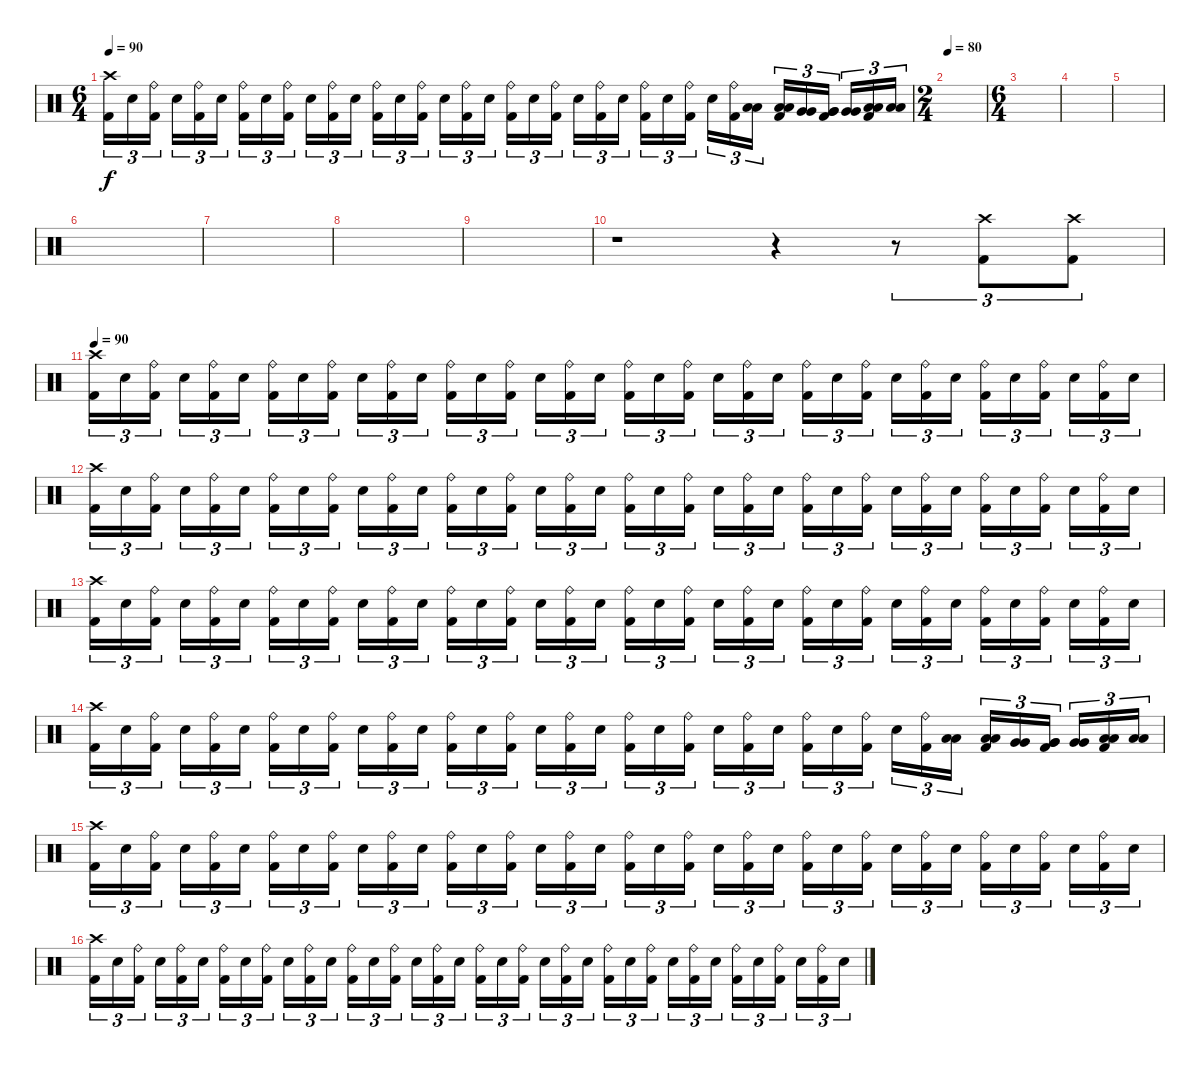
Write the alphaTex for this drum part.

\track "" {instrument percussion}
\staff {score}
\articulation defaults
\ts (6 4)
\tempo 90
\clef neutral
\ks c
("Crash high (hit)" "Kick (hit) 2").16{tu (3 2) dy f} "Electric Snare (hit)".16{tu (3 2)} ("Ride (bell)" "Kick (hit) 2").16{tu (3 2)} "Electric Snare (hit)".16{tu (3 2)} ("Ride (bell)" "Kick (hit) 2").16{tu (3 2)} "Electric Snare (hit)".16{tu (3 2)} ("Ride (bell)" "Kick (hit) 2").16{tu (3 2)} "Electric Snare (hit)".16{tu (3 2)} ("Ride (bell)" "Kick (hit) 2").16{tu (3 2)} "Electric Snare (hit)".16{tu (3 2)} ("Ride (bell)" "Kick (hit) 2").16{tu (3 2)} "Electric Snare (hit)".16{tu (3 2)} ("Ride (bell)" "Kick (hit) 2").16{tu (3 2)} "Electric Snare (hit)".16{tu (3 2)} ("Ride (bell)" "Kick (hit) 2").16{tu (3 2)} "Electric Snare (hit)".16{tu (3 2)} ("Ride (bell)" "Kick (hit) 2").16{tu (3 2)} "Electric Snare (hit)".16{tu (3 2)} ("Ride (bell)" "Kick (hit) 2").16{tu (3 2)} "Electric Snare (hit)".16{tu (3 2)} ("Ride (bell)" "Kick (hit) 2").16{tu (3 2)} "Electric Snare (hit)".16{tu (3 2)} ("Ride (bell)" "Kick (hit) 2").16{tu (3 2)} "Electric Snare (hit)".16{tu (3 2)} ("Ride (bell)" "Kick (hit) 2").16{tu (3 2)} "Electric Snare (hit)".16{tu (3 2)} ("Ride (bell)" "Kick (hit) 2").16{tu (3 2)} "Electric Snare (hit)".16{tu (3 2)} ("Ride (bell)" "Kick (hit) 2").16{tu (3 2)} ("Low Tom (hit)" "Low Tom (hit)").16{tu (3 2)} ("Low Tom (hit)" "Low Tom (hit)" "Kick (hit) 2").16{tu (3 2)} ("Very Low Tom (hit)" "Very Low Tom (hit)").16{tu (3 2)} ("Very Low Tom (hit)" "Very Low Tom (hit)" "Kick (hit) 2").16{tu (3 2)} ("Very Low Tom (hit)" "Very Low Tom (hit)").16{tu (3 2)} ("Low Floor Tom (hit)" "Low Floor Tom (hit)" "Kick (hit) 2").16{tu (3 2)} ("Low Floor Tom (hit)" "Low Floor Tom (hit)").16{tu (3 2)} |
\ts (2 4)
\tempo 80
|
\ts (6 4)
|
|
|
|
|
|
|
r.1 r.4 r.8{tu (3 2)} ("Crash high (hit)" "Kick (hit) 2").8{tu (3 2)} ("Crash high (hit)" "Kick (hit) 2").8{tu (3 2)} |
\tempo 90
("Crash high (hit)" "Kick (hit) 2").16{tu (3 2)} "Electric Snare (hit)".16{tu (3 2)} ("Ride (bell)" "Kick (hit) 2").16{tu (3 2)} "Electric Snare (hit)".16{tu (3 2)} ("Ride (bell)" "Kick (hit) 2").16{tu (3 2)} "Electric Snare (hit)".16{tu (3 2)} ("Ride (bell)" "Kick (hit) 2").16{tu (3 2)} "Electric Snare (hit)".16{tu (3 2)} ("Ride (bell)" "Kick (hit) 2").16{tu (3 2)} "Electric Snare (hit)".16{tu (3 2)} ("Ride (bell)" "Kick (hit) 2").16{tu (3 2)} "Electric Snare (hit)".16{tu (3 2)} ("Ride (bell)" "Kick (hit) 2").16{tu (3 2)} "Electric Snare (hit)".16{tu (3 2)} ("Ride (bell)" "Kick (hit) 2").16{tu (3 2)} "Electric Snare (hit)".16{tu (3 2)} ("Ride (bell)" "Kick (hit) 2").16{tu (3 2)} "Electric Snare (hit)".16{tu (3 2)} ("Ride (bell)" "Kick (hit) 2").16{tu (3 2)} "Electric Snare (hit)".16{tu (3 2)} ("Ride (bell)" "Kick (hit) 2").16{tu (3 2)} "Electric Snare (hit)".16{tu (3 2)} ("Ride (bell)" "Kick (hit) 2").16{tu (3 2)} "Electric Snare (hit)".16{tu (3 2)} ("Ride (bell)" "Kick (hit) 2").16{tu (3 2)} "Electric Snare (hit)".16{tu (3 2)} ("Ride (bell)" "Kick (hit) 2").16{tu (3 2)} "Electric Snare (hit)".16{tu (3 2)} ("Ride (bell)" "Kick (hit) 2").16{tu (3 2)} "Electric Snare (hit)".16{tu (3 2)} ("Ride (bell)" "Kick (hit) 2").16{tu (3 2)} "Electric Snare (hit)".16{tu (3 2)} ("Ride (bell)" "Kick (hit) 2").16{tu (3 2)} "Electric Snare (hit)".16{tu (3 2)} ("Ride (bell)" "Kick (hit) 2").16{tu (3 2)} "Electric Snare (hit)".16{tu (3 2)} |
("Crash high (hit)" "Kick (hit) 2").16{tu (3 2)} "Electric Snare (hit)".16{tu (3 2)} ("Ride (bell)" "Kick (hit) 2").16{tu (3 2)} "Electric Snare (hit)".16{tu (3 2)} ("Ride (bell)" "Kick (hit) 2").16{tu (3 2)} "Electric Snare (hit)".16{tu (3 2)} ("Ride (bell)" "Kick (hit) 2").16{tu (3 2)} "Electric Snare (hit)".16{tu (3 2)} ("Ride (bell)" "Kick (hit) 2").16{tu (3 2)} "Electric Snare (hit)".16{tu (3 2)} ("Ride (bell)" "Kick (hit) 2").16{tu (3 2)} "Electric Snare (hit)".16{tu (3 2)} ("Ride (bell)" "Kick (hit) 2").16{tu (3 2)} "Electric Snare (hit)".16{tu (3 2)} ("Ride (bell)" "Kick (hit) 2").16{tu (3 2)} "Electric Snare (hit)".16{tu (3 2)} ("Ride (bell)" "Kick (hit) 2").16{tu (3 2)} "Electric Snare (hit)".16{tu (3 2)} ("Ride (bell)" "Kick (hit) 2").16{tu (3 2)} "Electric Snare (hit)".16{tu (3 2)} ("Ride (bell)" "Kick (hit) 2").16{tu (3 2)} "Electric Snare (hit)".16{tu (3 2)} ("Ride (bell)" "Kick (hit) 2").16{tu (3 2)} "Electric Snare (hit)".16{tu (3 2)} ("Ride (bell)" "Kick (hit) 2").16{tu (3 2)} "Electric Snare (hit)".16{tu (3 2)} ("Ride (bell)" "Kick (hit) 2").16{tu (3 2)} "Electric Snare (hit)".16{tu (3 2)} ("Ride (bell)" "Kick (hit) 2").16{tu (3 2)} "Electric Snare (hit)".16{tu (3 2)} ("Ride (bell)" "Kick (hit) 2").16{tu (3 2)} "Electric Snare (hit)".16{tu (3 2)} ("Ride (bell)" "Kick (hit) 2").16{tu (3 2)} "Electric Snare (hit)".16{tu (3 2)} ("Ride (bell)" "Kick (hit) 2").16{tu (3 2)} "Electric Snare (hit)".16{tu (3 2)} |
("Crash high (hit)" "Kick (hit) 2").16{tu (3 2)} "Electric Snare (hit)".16{tu (3 2)} ("Ride (bell)" "Kick (hit) 2").16{tu (3 2)} "Electric Snare (hit)".16{tu (3 2)} ("Ride (bell)" "Kick (hit) 2").16{tu (3 2)} "Electric Snare (hit)".16{tu (3 2)} ("Ride (bell)" "Kick (hit) 2").16{tu (3 2)} "Electric Snare (hit)".16{tu (3 2)} ("Ride (bell)" "Kick (hit) 2").16{tu (3 2)} "Electric Snare (hit)".16{tu (3 2)} ("Ride (bell)" "Kick (hit) 2").16{tu (3 2)} "Electric Snare (hit)".16{tu (3 2)} ("Ride (bell)" "Kick (hit) 2").16{tu (3 2)} "Electric Snare (hit)".16{tu (3 2)} ("Ride (bell)" "Kick (hit) 2").16{tu (3 2)} "Electric Snare (hit)".16{tu (3 2)} ("Ride (bell)" "Kick (hit) 2").16{tu (3 2)} "Electric Snare (hit)".16{tu (3 2)} ("Ride (bell)" "Kick (hit) 2").16{tu (3 2)} "Electric Snare (hit)".16{tu (3 2)} ("Ride (bell)" "Kick (hit) 2").16{tu (3 2)} "Electric Snare (hit)".16{tu (3 2)} ("Ride (bell)" "Kick (hit) 2").16{tu (3 2)} "Electric Snare (hit)".16{tu (3 2)} ("Ride (bell)" "Kick (hit) 2").16{tu (3 2)} "Electric Snare (hit)".16{tu (3 2)} ("Ride (bell)" "Kick (hit) 2").16{tu (3 2)} "Electric Snare (hit)".16{tu (3 2)} ("Ride (bell)" "Kick (hit) 2").16{tu (3 2)} "Electric Snare (hit)".16{tu (3 2)} ("Ride (bell)" "Kick (hit) 2").16{tu (3 2)} "Electric Snare (hit)".16{tu (3 2)} ("Ride (bell)" "Kick (hit) 2").16{tu (3 2)} "Electric Snare (hit)".16{tu (3 2)} ("Ride (bell)" "Kick (hit) 2").16{tu (3 2)} "Electric Snare (hit)".16{tu (3 2)} |
("Crash high (hit)" "Kick (hit) 2").16{tu (3 2)} "Electric Snare (hit)".16{tu (3 2)} ("Ride (bell)" "Kick (hit) 2").16{tu (3 2)} "Electric Snare (hit)".16{tu (3 2)} ("Ride (bell)" "Kick (hit) 2").16{tu (3 2)} "Electric Snare (hit)".16{tu (3 2)} ("Ride (bell)" "Kick (hit) 2").16{tu (3 2)} "Electric Snare (hit)".16{tu (3 2)} ("Ride (bell)" "Kick (hit) 2").16{tu (3 2)} "Electric Snare (hit)".16{tu (3 2)} ("Ride (bell)" "Kick (hit) 2").16{tu (3 2)} "Electric Snare (hit)".16{tu (3 2)} ("Ride (bell)" "Kick (hit) 2").16{tu (3 2)} "Electric Snare (hit)".16{tu (3 2)} ("Ride (bell)" "Kick (hit) 2").16{tu (3 2)} "Electric Snare (hit)".16{tu (3 2)} ("Ride (bell)" "Kick (hit) 2").16{tu (3 2)} "Electric Snare (hit)".16{tu (3 2)} ("Ride (bell)" "Kick (hit) 2").16{tu (3 2)} "Electric Snare (hit)".16{tu (3 2)} ("Ride (bell)" "Kick (hit) 2").16{tu (3 2)} "Electric Snare (hit)".16{tu (3 2)} ("Ride (bell)" "Kick (hit) 2").16{tu (3 2)} "Electric Snare (hit)".16{tu (3 2)} ("Ride (bell)" "Kick (hit) 2").16{tu (3 2)} "Electric Snare (hit)".16{tu (3 2)} ("Ride (bell)" "Kick (hit) 2").16{tu (3 2)} "Electric Snare (hit)".16{tu (3 2)} ("Ride (bell)" "Kick (hit) 2").16{tu (3 2)} ("Low Tom (hit)" "Low Tom (hit)").16{tu (3 2)} ("Low Tom (hit)" "Low Tom (hit)" "Kick (hit) 2").16{tu (3 2)} ("Very Low Tom (hit)" "Very Low Tom (hit)").16{tu (3 2)} ("Very Low Tom (hit)" "Very Low Tom (hit)" "Kick (hit) 2").16{tu (3 2)} ("Very Low Tom (hit)" "Very Low Tom (hit)").16{tu (3 2)} ("Low Floor Tom (hit)" "Low Floor Tom (hit)" "Kick (hit) 2").16{tu (3 2)} ("Low Floor Tom (hit)" "Low Floor Tom (hit)").16{tu (3 2)} |
("Crash high (hit)" "Kick (hit) 2").16{tu (3 2)} "Electric Snare (hit)".16{tu (3 2)} ("Ride (bell)" "Kick (hit) 2").16{tu (3 2)} "Electric Snare (hit)".16{tu (3 2)} ("Ride (bell)" "Kick (hit) 2").16{tu (3 2)} "Electric Snare (hit)".16{tu (3 2)} ("Ride (bell)" "Kick (hit) 2").16{tu (3 2)} "Electric Snare (hit)".16{tu (3 2)} ("Ride (bell)" "Kick (hit) 2").16{tu (3 2)} "Electric Snare (hit)".16{tu (3 2)} ("Ride (bell)" "Kick (hit) 2").16{tu (3 2)} "Electric Snare (hit)".16{tu (3 2)} ("Ride (bell)" "Kick (hit) 2").16{tu (3 2)} "Electric Snare (hit)".16{tu (3 2)} ("Ride (bell)" "Kick (hit) 2").16{tu (3 2)} "Electric Snare (hit)".16{tu (3 2)} ("Ride (bell)" "Kick (hit) 2").16{tu (3 2)} "Electric Snare (hit)".16{tu (3 2)} ("Ride (bell)" "Kick (hit) 2").16{tu (3 2)} "Electric Snare (hit)".16{tu (3 2)} ("Ride (bell)" "Kick (hit) 2").16{tu (3 2)} "Electric Snare (hit)".16{tu (3 2)} ("Ride (bell)" "Kick (hit) 2").16{tu (3 2)} "Electric Snare (hit)".16{tu (3 2)} ("Ride (bell)" "Kick (hit) 2").16{tu (3 2)} "Electric Snare (hit)".16{tu (3 2)} ("Ride (bell)" "Kick (hit) 2").16{tu (3 2)} "Electric Snare (hit)".16{tu (3 2)} ("Ride (bell)" "Kick (hit) 2").16{tu (3 2)} "Electric Snare (hit)".16{tu (3 2)} ("Ride (bell)" "Kick (hit) 2").16{tu (3 2)} "Electric Snare (hit)".16{tu (3 2)} ("Ride (bell)" "Kick (hit) 2").16{tu (3 2)} "Electric Snare (hit)".16{tu (3 2)} ("Ride (bell)" "Kick (hit) 2").16{tu (3 2)} "Electric Snare (hit)".16{tu (3 2)} |
("Crash high (hit)" "Kick (hit) 2").16{tu (3 2)} "Electric Snare (hit)".16{tu (3 2)} ("Ride (bell)" "Kick (hit) 2").16{tu (3 2)} "Electric Snare (hit)".16{tu (3 2)} ("Ride (bell)" "Kick (hit) 2").16{tu (3 2)} "Electric Snare (hit)".16{tu (3 2)} ("Ride (bell)" "Kick (hit) 2").16{tu (3 2)} "Electric Snare (hit)".16{tu (3 2)} ("Ride (bell)" "Kick (hit) 2").16{tu (3 2)} "Electric Snare (hit)".16{tu (3 2)} ("Ride (bell)" "Kick (hit) 2").16{tu (3 2)} "Electric Snare (hit)".16{tu (3 2)} ("Ride (bell)" "Kick (hit) 2").16{tu (3 2)} "Electric Snare (hit)".16{tu (3 2)} ("Ride (bell)" "Kick (hit) 2").16{tu (3 2)} "Electric Snare (hit)".16{tu (3 2)} ("Ride (bell)" "Kick (hit) 2").16{tu (3 2)} "Electric Snare (hit)".16{tu (3 2)} ("Ride (bell)" "Kick (hit) 2").16{tu (3 2)} "Electric Snare (hit)".16{tu (3 2)} ("Ride (bell)" "Kick (hit) 2").16{tu (3 2)} "Electric Snare (hit)".16{tu (3 2)} ("Ride (bell)" "Kick (hit) 2").16{tu (3 2)} "Electric Snare (hit)".16{tu (3 2)} ("Ride (bell)" "Kick (hit) 2").16{tu (3 2)} "Electric Snare (hit)".16{tu (3 2)} ("Ride (bell)" "Kick (hit) 2").16{tu (3 2)} "Electric Snare (hit)".16{tu (3 2)} ("Ride (bell)" "Kick (hit) 2").16{tu (3 2)} "Electric Snare (hit)".16{tu (3 2)} ("Ride (bell)" "Kick (hit) 2").16{tu (3 2)} "Electric Snare (hit)".16{tu (3 2)} ("Ride (bell)" "Kick (hit) 2").16{tu (3 2)} "Electric Snare (hit)".16{tu (3 2)} ("Ride (bell)" "Kick (hit) 2").16{tu (3 2)} "Electric Snare (hit)".16{tu (3 2)}
